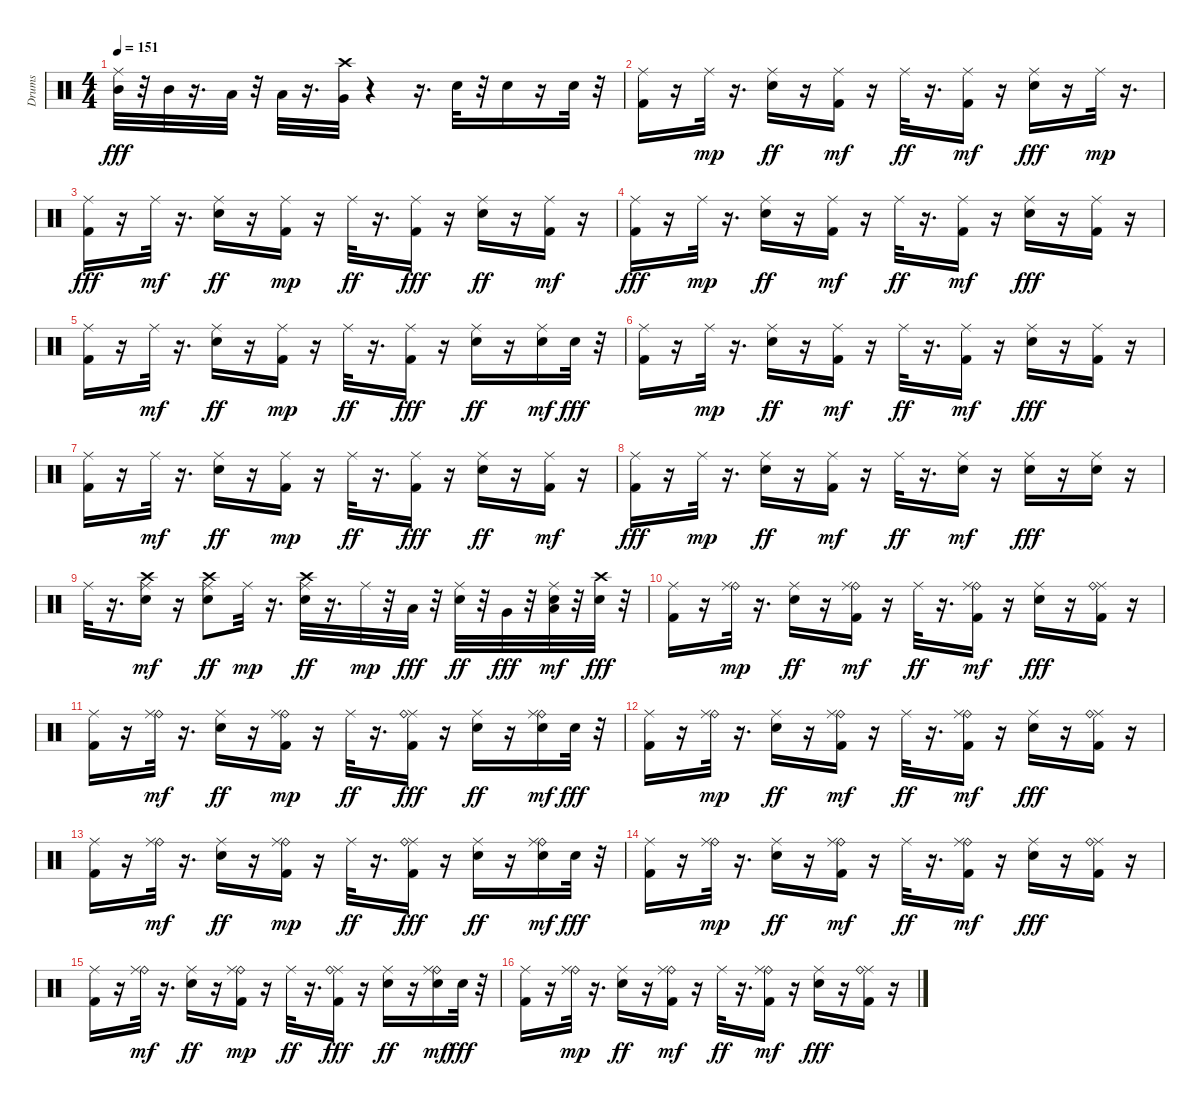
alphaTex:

\track ("Drums" "Drums") {instrument percussion}
\staff {score}
\articulation defaults
\ts (4 4)
\tempo 151
\clef neutral
\ks c
("Ride (middle)" "Mid Tom (hit)").32{dy fff} r.32 "Mid Tom (hit)".32 r.16{d} "Low Tom (hit)".32 r.32 "Low Tom (hit)".32 r.16{d} ("Very Low Tom (hit)" "Crash high (hit)").32 r.4 r.16{d} "Snare (hit) 2".32 r.32 "Snare (hit) 2".16 r.16 "Snare (hit) 2".32 r.32 |
("Kick (hit) 2" "Ride (middle)").16 r.16 "Ride (middle)".32{dy mp} r.16{d} ("Snare (hit) 2" "Ride (middle)").16{dy ff} r.16 ("Kick (hit) 2" "Ride (middle)").16{dy mf} r.16 "Ride (middle)".32{dy ff} r.16{d} ("Kick (hit) 2" "Ride (middle)").16{dy mf} r.16 ("Ride (middle)" "Snare (hit) 2").16{dy fff} r.16 "Ride (middle)".32{dy mp} r.16{d} |
("Ride (middle)" "Kick (hit) 2").16{dy fff} r.16 "Ride (middle)".32{dy mf} r.16{d} ("Snare (hit) 2" "Ride (middle)").16{dy ff} r.16 ("Kick (hit) 2" "Ride (middle)").16{dy mp} r.16 "Ride (middle)".32{dy ff} r.16{d} ("Ride (middle)" "Kick (hit) 2").16{dy fff} r.16 ("Snare (hit) 2" "Ride (middle)").16{dy ff} r.16 ("Kick (hit) 2" "Ride (middle)").16{dy mf} r.16 |
("Kick (hit) 2" "Ride (middle)").16{dy fff} r.16 "Ride (middle)".32{dy mp} r.16{d} ("Snare (hit) 2" "Ride (middle)").16{dy ff} r.16 ("Kick (hit) 2" "Ride (middle)").16{dy mf} r.16 "Ride (middle)".32{dy ff} r.16{d} ("Kick (hit) 2" "Ride (middle)").16{dy mf} r.16 ("Ride (middle)" "Snare (hit) 2").16{dy fff} r.16 ("Ride (middle)" "Kick (hit) 2").16 r.16 |
("Ride (middle)" "Kick (hit) 2").16 r.16 "Ride (middle)".32{dy mf} r.16{d} ("Snare (hit) 2" "Ride (middle)").16{dy ff} r.16 ("Kick (hit) 2" "Ride (middle)").16{dy mp} r.16 "Ride (middle)".32{dy ff} r.16{d} ("Ride (middle)" "Kick (hit) 2").16{dy fff} r.16 ("Snare (hit) 2" "Ride (middle)").16{dy ff} r.16 ("Snare (hit) 2" "Ride (middle)").16{dy mf} "Snare (hit) 2".32{dy fff} r.32 |
("Kick (hit) 2" "Ride (middle)").16 r.16 "Ride (middle)".32{dy mp} r.16{d} ("Snare (hit) 2" "Ride (middle)").16{dy ff} r.16 ("Kick (hit) 2" "Ride (middle)").16{dy mf} r.16 "Ride (middle)".32{dy ff} r.16{d} ("Kick (hit) 2" "Ride (middle)").16{dy mf} r.16 ("Ride (middle)" "Snare (hit) 2").16{dy fff} r.16 ("Ride (middle)" "Kick (hit) 2").16 r.16 |
("Ride (middle)" "Kick (hit) 2").16 r.16 "Ride (middle)".32{dy mf} r.16{d} ("Snare (hit) 2" "Ride (middle)").16{dy ff} r.16 ("Kick (hit) 2" "Ride (middle)").16{dy mp} r.16 "Ride (middle)".32{dy ff} r.16{d} ("Ride (middle)" "Kick (hit) 2").16{dy fff} r.16 ("Snare (hit) 2" "Ride (middle)").16{dy ff} r.16 ("Kick (hit) 2" "Ride (middle)").16{dy mf} r.16 |
("Kick (hit) 2" "Ride (middle)").16{dy fff} r.16 "Ride (middle)".32{dy mp} r.16{d} ("Snare (hit) 2" "Ride (middle)").16{dy ff} r.16 ("Kick (hit) 2" "Ride (middle)").16{dy mf} r.16 "Ride (middle)".32{dy ff} r.16{d} ("Snare (hit) 2" "Ride (middle)").16{dy mf} r.16 ("Ride (middle)" "Snare (hit) 2").16{dy fff} r.16 ("Ride (middle)" "Snare (hit) 2").16 r.16 |
"Ride (middle)".32 r.16{d} ("Snare (hit) 2" "Crash high (hit)" "Ride (middle)").16{dy mf} r.16 ("Snare (hit) 2" "Crash high (hit)" "Ride (middle)").8{dy ff} "Ride (middle)".32{dy mp} r.16{d} ("Crash high (hit)" "Snare (hit) 2" "Ride (middle)").32{dy ff} r.16{d} "Ride (middle)".32{dy mp} r.32 "Low Tom (hit)".32{dy fff} r.32 ("Snare (hit) 2" "Ride (middle)").32{dy ff} r.32 "Very Low Tom (hit)".32{dy fff} r.32 ("Low Floor Tom (hit)" "Snare (hit) 2" "Ride (middle)").32{dy mf} r.32 ("Crash high (hit)" "Snare (hit) 2").32{dy fff} r.32 |
("Kick (hit) 2" "Ride (middle)").16 r.16 ("Ride (bell)" "Ride (middle)").32{dy mp} r.16{d} ("Snare (hit) 2" "Ride (middle)").16{dy ff} r.16 ("Kick (hit) 2" "Ride (bell)" "Ride (middle)").16{dy mf} r.16 "Ride (middle)".32{dy ff} r.16{d} ("Kick (hit) 2" "Ride (bell)" "Ride (middle)").16{dy mf} r.16 ("Ride (middle)" "Snare (hit) 2").16{dy fff} r.16 ("Ride (middle)" "Kick (hit) 2" "Ride (bell)").16 r.16 |
("Ride (middle)" "Kick (hit) 2").16 r.16 ("Ride (bell)" "Ride (middle)").32{dy mf} r.16{d} ("Snare (hit) 2" "Ride (middle)").16{dy ff} r.16 ("Kick (hit) 2" "Ride (bell)" "Ride (middle)").16{dy mp} r.16 "Ride (middle)".32{dy ff} r.16{d} ("Ride (middle)" "Kick (hit) 2" "Ride (bell)").16{dy fff} r.16 ("Snare (hit) 2" "Ride (middle)").16{dy ff} r.16 ("Snare (hit) 2" "Ride (bell)" "Ride (middle)").16{dy mf} "Snare (hit) 2".32{dy fff} r.32 |
("Kick (hit) 2" "Ride (middle)").16 r.16 ("Ride (bell)" "Ride (middle)").32{dy mp} r.16{d} ("Snare (hit) 2" "Ride (middle)").16{dy ff} r.16 ("Kick (hit) 2" "Ride (bell)" "Ride (middle)").16{dy mf} r.16 "Ride (middle)".32{dy ff} r.16{d} ("Kick (hit) 2" "Ride (bell)" "Ride (middle)").16{dy mf} r.16 ("Ride (middle)" "Snare (hit) 2").16{dy fff} r.16 ("Ride (middle)" "Kick (hit) 2" "Ride (bell)").16 r.16 |
("Ride (middle)" "Kick (hit) 2").16 r.16 ("Ride (bell)" "Ride (middle)").32{dy mf} r.16{d} ("Snare (hit) 2" "Ride (middle)").16{dy ff} r.16 ("Kick (hit) 2" "Ride (bell)" "Ride (middle)").16{dy mp} r.16 "Ride (middle)".32{dy ff} r.16{d} ("Ride (middle)" "Kick (hit) 2" "Ride (bell)").16{dy fff} r.16 ("Snare (hit) 2" "Ride (middle)").16{dy ff} r.16 ("Snare (hit) 2" "Ride (bell)" "Ride (middle)").16{dy mf} "Snare (hit) 2".32{dy fff} r.32 |
("Kick (hit) 2" "Ride (middle)").16 r.16 ("Ride (bell)" "Ride (middle)").32{dy mp} r.16{d} ("Snare (hit) 2" "Ride (middle)").16{dy ff} r.16 ("Kick (hit) 2" "Ride (bell)" "Ride (middle)").16{dy mf} r.16 "Ride (middle)".32{dy ff} r.16{d} ("Kick (hit) 2" "Ride (bell)" "Ride (middle)").16{dy mf} r.16 ("Ride (middle)" "Snare (hit) 2").16{dy fff} r.16 ("Ride (middle)" "Kick (hit) 2" "Ride (bell)").16 r.16 |
("Ride (middle)" "Kick (hit) 2").16 r.16 ("Ride (bell)" "Ride (middle)").32{dy mf} r.16{d} ("Snare (hit) 2" "Ride (middle)").16{dy ff} r.16 ("Kick (hit) 2" "Ride (bell)" "Ride (middle)").16{dy mp} r.16 "Ride (middle)".32{dy ff} r.16{d} ("Ride (middle)" "Kick (hit) 2" "Ride (bell)").16{dy fff} r.16 ("Snare (hit) 2" "Ride (middle)").16{dy ff} r.16 ("Snare (hit) 2" "Ride (bell)" "Ride (middle)").16{dy mf} "Snare (hit) 2".32{dy fff} r.32 |
("Kick (hit) 2" "Ride (middle)").16 r.16 ("Ride (bell)" "Ride (middle)").32{dy mp} r.16{d} ("Snare (hit) 2" "Ride (middle)").16{dy ff} r.16 ("Kick (hit) 2" "Ride (bell)" "Ride (middle)").16{dy mf} r.16 "Ride (middle)".32{dy ff} r.16{d} ("Kick (hit) 2" "Ride (bell)" "Ride (middle)").16{dy mf} r.16 ("Ride (middle)" "Snare (hit) 2").16{dy fff} r.16 ("Ride (middle)" "Kick (hit) 2" "Ride (bell)").16 r.16
